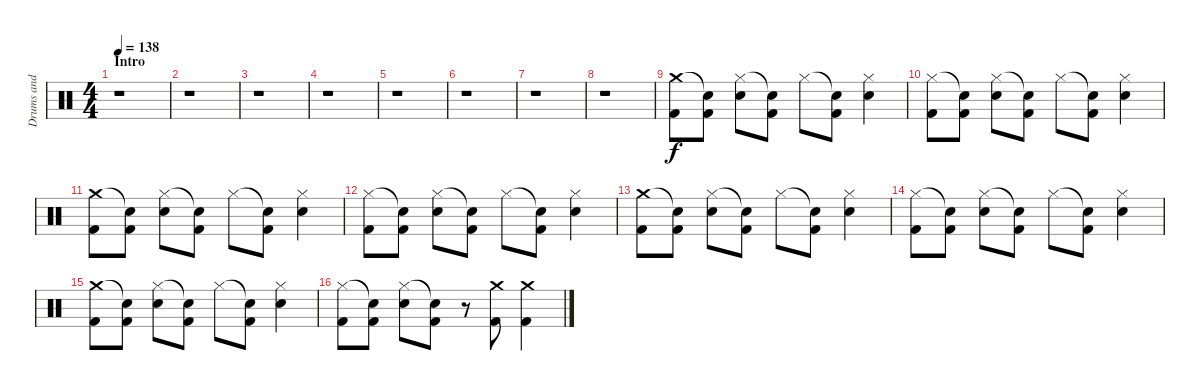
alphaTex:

\track ("Drums and Percussion" "Drums and ") {instrument percussion}
\staff {score}
\articulation defaults
\ts (4 4)
\section ("" "Intro")
\tempo 138
\clef neutral
\ks c
r.1{dy f} |
r.1 |
r.1 |
r.1 |
r.1 |
r.1 |
r.1 |
r.1 |
("Crash medium (hit)" "Kick (hit) 2").8 ("Snare (hit)"{t} "Kick (hit) 2").8 ("Hi-Hat (closed)" "Electric Snare (hit)").8 ("Snare (hit)"{t} "Kick (hit) 2").8 "Hi-Hat (closed)".8 ("Snare (hit)"{t} "Kick (hit) 2").8 ("Hi-Hat (closed)" "Electric Snare (hit)").4 |
("Hi-Hat (closed)" "Kick (hit) 2").8 ("Snare (hit)"{t} "Kick (hit) 2").8 ("Hi-Hat (closed)" "Electric Snare (hit)").8 ("Snare (hit)"{t} "Kick (hit) 2").8 "Hi-Hat (closed)".8 ("Snare (hit)"{t} "Kick (hit) 2").8 ("Hi-Hat (closed)" "Electric Snare (hit)").4 |
("Crash medium (hit)" "Kick (hit) 2").8 ("Snare (hit)"{t} "Kick (hit) 2").8 ("Hi-Hat (closed)" "Electric Snare (hit)").8 ("Snare (hit)"{t} "Kick (hit) 2").8 "Hi-Hat (closed)".8 ("Snare (hit)"{t} "Kick (hit) 2").8 ("Hi-Hat (closed)" "Electric Snare (hit)").4 |
("Hi-Hat (closed)" "Kick (hit) 2").8 ("Snare (hit)"{t} "Kick (hit) 2").8 ("Hi-Hat (closed)" "Electric Snare (hit)").8 ("Snare (hit)"{t} "Kick (hit) 2").8 "Hi-Hat (closed)".8 ("Snare (hit)"{t} "Kick (hit) 2").8 ("Hi-Hat (closed)" "Electric Snare (hit)").4 |
("Crash medium (hit)" "Kick (hit) 2").8 ("Snare (hit)"{t} "Kick (hit) 2").8 ("Hi-Hat (closed)" "Electric Snare (hit)").8 ("Snare (hit)"{t} "Kick (hit) 2").8 "Hi-Hat (closed)".8 ("Snare (hit)"{t} "Kick (hit) 2").8 ("Hi-Hat (closed)" "Electric Snare (hit)").4 |
("Hi-Hat (closed)" "Kick (hit) 2").8 ("Snare (hit)"{t} "Kick (hit) 2").8 ("Hi-Hat (closed)" "Electric Snare (hit)").8 ("Snare (hit)"{t} "Kick (hit) 2").8 "Hi-Hat (closed)".8 ("Snare (hit)"{t} "Kick (hit) 2").8 ("Hi-Hat (closed)" "Electric Snare (hit)").4 |
("Crash medium (hit)" "Kick (hit) 2").8 ("Snare (hit)"{t} "Kick (hit) 2").8 ("Hi-Hat (closed)" "Electric Snare (hit)").8 ("Snare (hit)"{t} "Kick (hit) 2").8 "Hi-Hat (closed)".8 ("Snare (hit)"{t} "Kick (hit) 2").8 ("Hi-Hat (closed)" "Electric Snare (hit)").4 |
("Hi-Hat (closed)" "Kick (hit) 2").8 ("Snare (hit)"{t} "Kick (hit) 2").8 ("Hi-Hat (closed)" "Electric Snare (hit)").8 ("Snare (hit)"{t} "Kick (hit) 2").8 r.8 ("Crash medium (hit)" "Kick (hit) 2").8 ("Crash medium (hit)" "Kick (hit) 2").4
